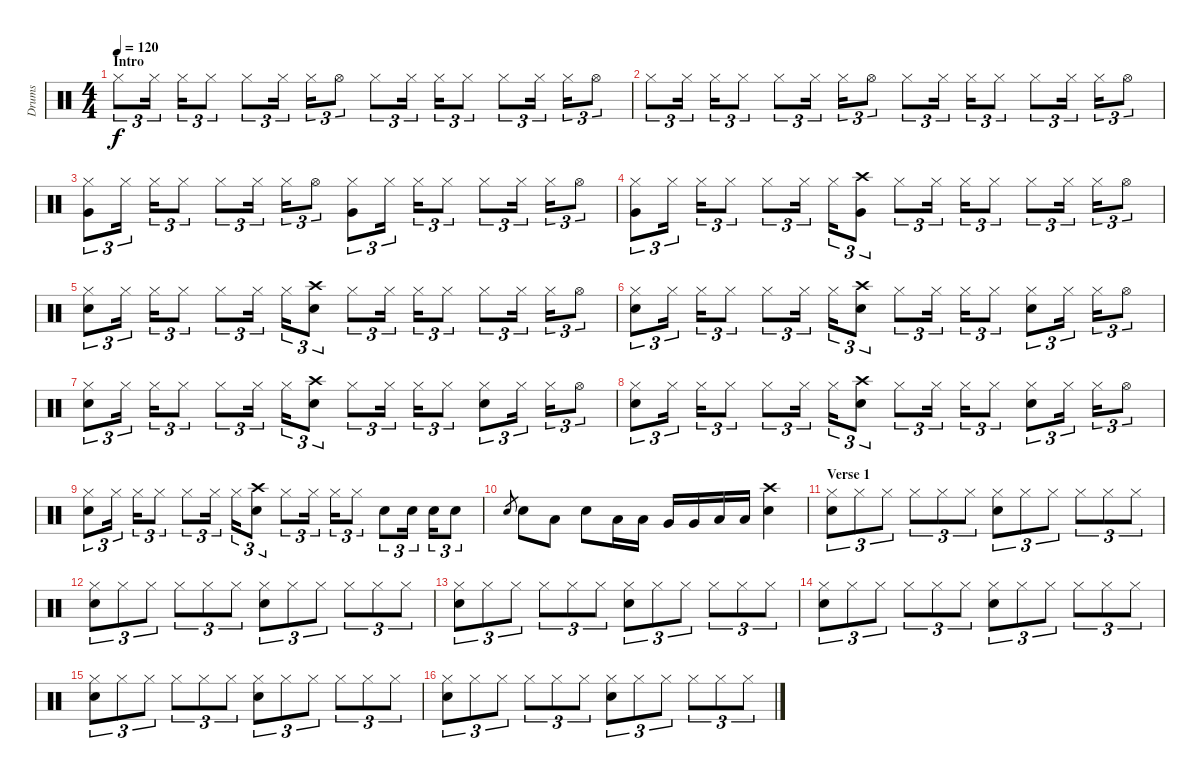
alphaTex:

\track ("Drums" "Drums") {instrument percussion}
\staff {score}
\articulation defaults
\ts (4 4)
\section ("" "Intro")
\tempo 120
\clef neutral
\ks c "Hi-Hat (closed)".8{tu (3 2) dy f} "Hi-Hat (closed)".16{tu (3 2)} "Hi-Hat (closed)".16{tu (3 2)} "Hi-Hat (closed)".8{tu (3 2)} "Hi-Hat (closed)".8{tu (3 2)} "Hi-Hat (closed)".16{tu (3 2)} "Hi-Hat (closed)".16{tu (3 2)} "Hi-Hat (open)".8{tu (3 2)} "Hi-Hat (closed)".8{tu (3 2)} "Hi-Hat (closed)".16{tu (3 2)} "Hi-Hat (closed)".16{tu (3 2)} "Hi-Hat (closed)".8{tu (3 2)} "Hi-Hat (closed)".8{tu (3 2)} "Hi-Hat (closed)".16{tu (3 2)} "Hi-Hat (closed)".16{tu (3 2)} "Hi-Hat (open)".8{tu (3 2)}
|
"Hi-Hat (closed)".8{tu (3 2)} "Hi-Hat (closed)".16{tu (3 2)} "Hi-Hat (closed)".16{tu (3 2)} "Hi-Hat (closed)".8{tu (3 2)} "Hi-Hat (closed)".8{tu (3 2)} "Hi-Hat (closed)".16{tu (3 2)} "Hi-Hat (closed)".16{tu (3 2)} "Hi-Hat (open)".8{tu (3 2)} "Hi-Hat (closed)".8{tu (3 2)} "Hi-Hat (closed)".16{tu (3 2)} "Hi-Hat (closed)".16{tu (3 2)} "Hi-Hat (closed)".8{tu (3 2)} "Hi-Hat (closed)".8{tu (3 2)} "Hi-Hat (closed)".16{tu (3 2)} "Hi-Hat (closed)".16{tu (3 2)} "Hi-Hat (open)".8{tu (3 2)} |
("Very Low Tom (hit)" "Hi-Hat (closed)").8{tu (3 2)} "Hi-Hat (closed)".16{tu (3 2)} "Hi-Hat (closed)".16{tu (3 2)} "Hi-Hat (closed)".8{tu (3 2)} "Hi-Hat (closed)".8{tu (3 2)} "Hi-Hat (closed)".16{tu (3 2)} "Hi-Hat (closed)".16{tu (3 2)} "Hi-Hat (open)".8{tu (3 2)} ("Very Low Tom (hit)" "Hi-Hat (closed)").8{tu (3 2)} "Hi-Hat (closed)".16{tu (3 2)} "Hi-Hat (closed)".16{tu (3 2)} "Hi-Hat (closed)".8{tu (3 2)} "Hi-Hat (closed)".8{tu (3 2)} "Hi-Hat (closed)".16{tu (3 2)} "Hi-Hat (closed)".16{tu (3 2)} "Hi-Hat (open)".8{tu (3 2)} |
("Very Low Tom (hit)" "Hi-Hat (closed)").8{tu (3 2)} "Hi-Hat (closed)".16{tu (3 2)} "Hi-Hat (closed)".16{tu (3 2)} "Hi-Hat (closed)".8{tu (3 2)} "Hi-Hat (closed)".8{tu (3 2)} "Hi-Hat (closed)".16{tu (3 2)} "Hi-Hat (closed)".16{tu (3 2)} ("Very Low Tom (hit)" "Crash high (hit)").8{tu (3 2)} "Hi-Hat (closed)".8{tu (3 2)} "Hi-Hat (closed)".16{tu (3 2)} "Hi-Hat (closed)".16{tu (3 2)} "Hi-Hat (closed)".8{tu (3 2)} "Hi-Hat (closed)".8{tu (3 2)} "Hi-Hat (closed)".16{tu (3 2)} "Hi-Hat (closed)".16{tu (3 2)} "Hi-Hat (open)".8{tu (3 2)} |
("Electric Snare (hit)" "Hi-Hat (closed)").8{tu (3 2)} "Hi-Hat (closed)".16{tu (3 2)} "Hi-Hat (closed)".16{tu (3 2)} "Hi-Hat (closed)".8{tu (3 2)} "Hi-Hat (closed)".8{tu (3 2)} "Hi-Hat (closed)".16{tu (3 2)} "Hi-Hat (closed)".16{tu (3 2)} ("Electric Snare (hit)" "Crash high (hit)").8{tu (3 2)} "Hi-Hat (closed)".8{tu (3 2)} "Hi-Hat (closed)".16{tu (3 2)} "Hi-Hat (closed)".16{tu (3 2)} "Hi-Hat (closed)".8{tu (3 2)} "Hi-Hat (closed)".8{tu (3 2)} "Hi-Hat (closed)".16{tu (3 2)} "Hi-Hat (closed)".16{tu (3 2)} "Hi-Hat (open)".8{tu (3 2)} |
("Electric Snare (hit)" "Hi-Hat (closed)").8{tu (3 2)} "Hi-Hat (closed)".16{tu (3 2)} "Hi-Hat (closed)".16{tu (3 2)} "Hi-Hat (closed)".8{tu (3 2)} "Hi-Hat (closed)".8{tu (3 2)} "Hi-Hat (closed)".16{tu (3 2)} "Hi-Hat (closed)".16{tu (3 2)} ("Electric Snare (hit)" "Crash high (hit)").8{tu (3 2)} "Hi-Hat (closed)".8{tu (3 2)} "Hi-Hat (closed)".16{tu (3 2)} "Hi-Hat (closed)".16{tu (3 2)} "Hi-Hat (closed)".8{tu (3 2)} ("Electric Snare (hit)" "Hi-Hat (closed)").8{tu (3 2)} "Hi-Hat (closed)".16{tu (3 2)} "Hi-Hat (closed)".16{tu (3 2)} "Hi-Hat (open)".8{tu (3 2)} |
("Electric Snare (hit)" "Hi-Hat (closed)").8{tu (3 2)} "Hi-Hat (closed)".16{tu (3 2)} "Hi-Hat (closed)".16{tu (3 2)} "Hi-Hat (closed)".8{tu (3 2)} "Hi-Hat (closed)".8{tu (3 2)} "Hi-Hat (closed)".16{tu (3 2)} "Hi-Hat (closed)".16{tu (3 2)} ("Electric Snare (hit)" "Crash high (hit)").8{tu (3 2)} "Hi-Hat (closed)".8{tu (3 2)} "Hi-Hat (closed)".16{tu (3 2)} "Hi-Hat (closed)".16{tu (3 2)} "Hi-Hat (closed)".8{tu (3 2)} ("Electric Snare (hit)" "Hi-Hat (closed)").8{tu (3 2)} "Hi-Hat (closed)".16{tu (3 2)} "Hi-Hat (closed)".16{tu (3 2)} "Hi-Hat (open)".8{tu (3 2)} |
("Electric Snare (hit)" "Hi-Hat (closed)").8{tu (3 2)} "Hi-Hat (closed)".16{tu (3 2)} "Hi-Hat (closed)".16{tu (3 2)} "Hi-Hat (closed)".8{tu (3 2)} "Hi-Hat (closed)".8{tu (3 2)} "Hi-Hat (closed)".16{tu (3 2)} "Hi-Hat (closed)".16{tu (3 2)} ("Electric Snare (hit)" "Crash high (hit)").8{tu (3 2)} "Hi-Hat (closed)".8{tu (3 2)} "Hi-Hat (closed)".16{tu (3 2)} "Hi-Hat (closed)".16{tu (3 2)} "Hi-Hat (closed)".8{tu (3 2)} ("Electric Snare (hit)" "Hi-Hat (closed)").8{tu (3 2)} "Hi-Hat (closed)".16{tu (3 2)} "Hi-Hat (closed)".16{tu (3 2)} "Hi-Hat (open)".8{tu (3 2)} |
("Electric Snare (hit)" "Hi-Hat (closed)").8{tu (3 2)} "Hi-Hat (closed)".16{tu (3 2)} "Hi-Hat (closed)".16{tu (3 2)} "Hi-Hat (closed)".8{tu (3 2)} "Hi-Hat (closed)".8{tu (3 2)} "Hi-Hat (closed)".16{tu (3 2)} "Hi-Hat (closed)".16{tu (3 2)} ("Electric Snare (hit)" "Crash high (hit)").8{tu (3 2)} "Hi-Hat (closed)".8{tu (3 2)} "Hi-Hat (closed)".16{tu (3 2)} "Hi-Hat (closed)".16{tu (3 2)} "Hi-Hat (closed)".8{tu (3 2)} "Electric Snare (hit)".8{tu (3 2)} "Electric Snare (hit)".16{tu (3 2)} "Electric Snare (hit)".16{tu (3 2)} "Electric Snare (hit)".8{tu (3 2)} |
"Electric Snare (hit)".8{gr} "Electric Snare (hit)".8 "Low Tom (hit)".8 "Electric Snare (hit)".8 "Low Tom (hit)".16 "Low Tom (hit)".16 "Very Low Tom (hit)".16 "Very Low Tom (hit)".16 "Low Floor Tom (hit)".16 "Low Floor Tom (hit)".16 ("Electric Snare (hit)" "Crash high (hit)").4 |
\section ("" "Verse 1")
("Hi-Hat (closed)" "Electric Snare (hit)").8{tu (3 2)} "Hi-Hat (closed)".8{tu (3 2)} "Hi-Hat (closed)".8{tu (3 2)} "Hi-Hat (closed)".8{tu (3 2)} "Hi-Hat (closed)".8{tu (3 2)} "Hi-Hat (closed)".8{tu (3 2)} ("Hi-Hat (closed)" "Electric Snare (hit)").8{tu (3 2)} "Hi-Hat (closed)".8{tu (3 2)} "Hi-Hat (closed)".8{tu (3 2)} "Hi-Hat (closed)".8{tu (3 2)} "Hi-Hat (closed)".8{tu (3 2)} "Hi-Hat (closed)".8{tu (3 2)} |
("Hi-Hat (closed)" "Electric Snare (hit)").8{tu (3 2)} "Hi-Hat (closed)".8{tu (3 2)} "Hi-Hat (closed)".8{tu (3 2)} "Hi-Hat (closed)".8{tu (3 2)} "Hi-Hat (closed)".8{tu (3 2)} "Hi-Hat (closed)".8{tu (3 2)} ("Hi-Hat (closed)" "Electric Snare (hit)").8{tu (3 2)} "Hi-Hat (closed)".8{tu (3 2)} "Hi-Hat (closed)".8{tu (3 2)} "Hi-Hat (closed)".8{tu (3 2)} "Hi-Hat (closed)".8{tu (3 2)} "Hi-Hat (closed)".8{tu (3 2)} |
("Hi-Hat (closed)" "Electric Snare (hit)").8{tu (3 2)} "Hi-Hat (closed)".8{tu (3 2)} "Hi-Hat (closed)".8{tu (3 2)} "Hi-Hat (closed)".8{tu (3 2)} "Hi-Hat (closed)".8{tu (3 2)} "Hi-Hat (closed)".8{tu (3 2)} ("Hi-Hat (closed)" "Electric Snare (hit)").8{tu (3 2)} "Hi-Hat (closed)".8{tu (3 2)} "Hi-Hat (closed)".8{tu (3 2)} "Hi-Hat (closed)".8{tu (3 2)} "Hi-Hat (closed)".8{tu (3 2)} "Hi-Hat (closed)".8{tu (3 2)} |
("Hi-Hat (closed)" "Electric Snare (hit)").8{tu (3 2)} "Hi-Hat (closed)".8{tu (3 2)} "Hi-Hat (closed)".8{tu (3 2)} "Hi-Hat (closed)".8{tu (3 2)} "Hi-Hat (closed)".8{tu (3 2)} "Hi-Hat (closed)".8{tu (3 2)} ("Hi-Hat (closed)" "Electric Snare (hit)").8{tu (3 2)} "Hi-Hat (closed)".8{tu (3 2)} "Hi-Hat (closed)".8{tu (3 2)} "Hi-Hat (closed)".8{tu (3 2)} "Hi-Hat (closed)".8{tu (3 2)} "Hi-Hat (closed)".8{tu (3 2)} |
("Hi-Hat (closed)" "Electric Snare (hit)").8{tu (3 2)} "Hi-Hat (closed)".8{tu (3 2)} "Hi-Hat (closed)".8{tu (3 2)} "Hi-Hat (closed)".8{tu (3 2)} "Hi-Hat (closed)".8{tu (3 2)} "Hi-Hat (closed)".8{tu (3 2)} ("Hi-Hat (closed)" "Electric Snare (hit)").8{tu (3 2)} "Hi-Hat (closed)".8{tu (3 2)} "Hi-Hat (closed)".8{tu (3 2)} "Hi-Hat (closed)".8{tu (3 2)} "Hi-Hat (closed)".8{tu (3 2)} "Hi-Hat (closed)".8{tu (3 2)} |
("Hi-Hat (closed)" "Electric Snare (hit)").8{tu (3 2)} "Hi-Hat (closed)".8{tu (3 2)} "Hi-Hat (closed)".8{tu (3 2)} "Hi-Hat (closed)".8{tu (3 2)} "Hi-Hat (closed)".8{tu (3 2)} "Hi-Hat (closed)".8{tu (3 2)} ("Hi-Hat (closed)" "Electric Snare (hit)").8{tu (3 2)} "Hi-Hat (closed)".8{tu (3 2)} "Hi-Hat (closed)".8{tu (3 2)} "Hi-Hat (closed)".8{tu (3 2)} "Hi-Hat (closed)".8{tu (3 2)} "Hi-Hat (closed)".8{tu (3 2)}
